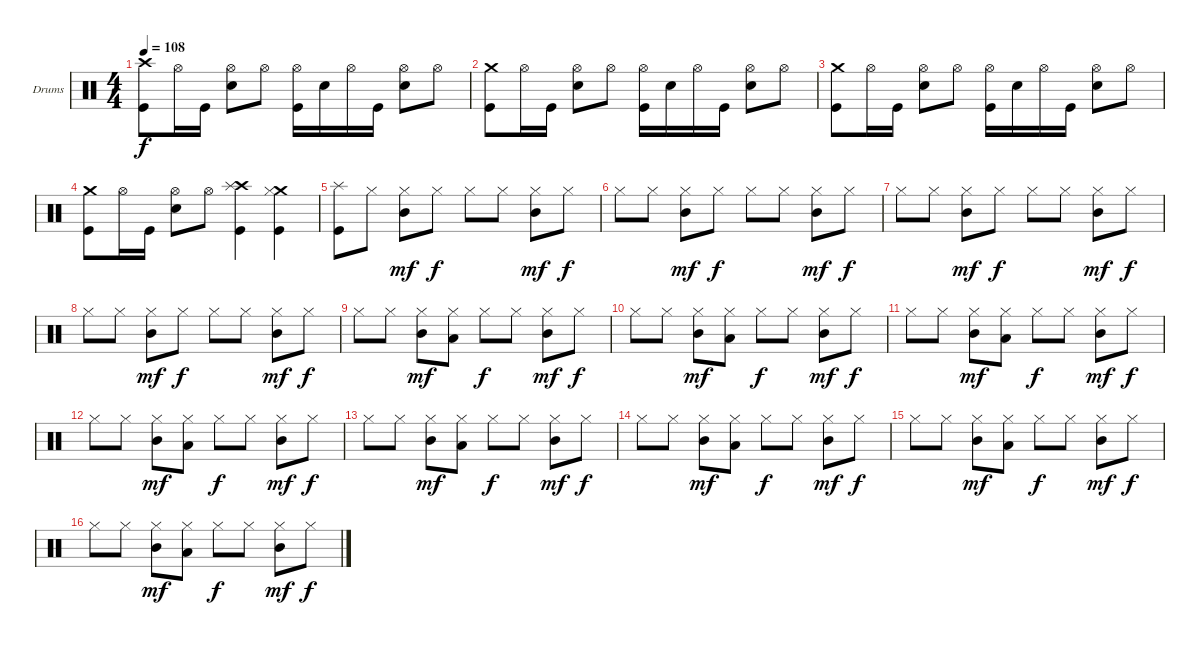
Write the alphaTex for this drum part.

\defaultSystemsLayout 4
\bracketExtendMode groupsimilarinstruments
\firstSystemTrackNameOrientation horizontal
\otherSystemsTrackNameOrientation horizontal
\track ("Drumkit" "Drums") {instrument percussion}
\staff {score}
\articulation defaults
\ts (4 4)
\tempo 108
\clef neutral
\ks c
("Kick (hit)" "Crash high (hit)").8{dy f} "Hi-Hat (open)".16 "Kick (hit)".16 ("Hi-Hat (open)" "Snare (hit) 2").8 "Hi-Hat (open)".8 ("Hi-Hat (open)" "Kick (hit)").16 "Snare (hit) 2".16 "Hi-Hat (open)".16 "Kick (hit)".16 ("Hi-Hat (open)" "Snare (hit) 2").8 "Hi-Hat (open)".8 |
("Kick (hit)" "Crash medium (hit)").8 "Hi-Hat (open)".16 "Kick (hit)".16 ("Hi-Hat (open)" "Snare (hit) 2").8 "Hi-Hat (open)".8 ("Hi-Hat (open)" "Kick (hit)").16 "Snare (hit) 2".16 "Hi-Hat (open)".16 "Kick (hit)".16 ("Hi-Hat (open)" "Snare (hit) 2").8 "Hi-Hat (open)".8 |
("Kick (hit)" "Crash medium (hit)").8 "Hi-Hat (open)".16 "Kick (hit)".16 ("Hi-Hat (open)" "Snare (hit) 2").8 "Hi-Hat (open)".8 ("Hi-Hat (open)" "Kick (hit)").16 "Snare (hit) 2".16 "Hi-Hat (open)".16 "Kick (hit)".16 ("Hi-Hat (open)" "Snare (hit) 2").8 "Hi-Hat (open)".8 |
("Kick (hit)" "Crash medium (hit)").8 "Hi-Hat (open)".16 "Kick (hit)".16 ("Hi-Hat (open)" "Snare (hit) 2").8 "Hi-Hat (open)".8 ("Kick (hit)" "Crash high (hit)" "Splash (hit)").4 ("Crash medium (hit)" "Hi-Hat (closed)" "Kick (hit)").4 |
("Splash (hit)" "Kick (hit)").8 "Hi-Hat (closed)".8 ("Hi-Hat (closed)" "Mid Tom (hit)").8{dy mf} "Hi-Hat (closed)".8{dy f} "Hi-Hat (closed)".8 "Hi-Hat (closed)".8 ("Hi-Hat (closed)" "Mid Tom (hit)").8{dy mf} "Hi-Hat (closed)".8{dy f} |
"Hi-Hat (closed)".8 "Hi-Hat (closed)".8 ("Hi-Hat (closed)" "Mid Tom (hit)").8{dy mf} "Hi-Hat (closed)".8{dy f} "Hi-Hat (closed)".8 "Hi-Hat (closed)".8 ("Hi-Hat (closed)" "Mid Tom (hit)").8{dy mf} "Hi-Hat (closed)".8{dy f} |
"Hi-Hat (closed)".8 "Hi-Hat (closed)".8 ("Hi-Hat (closed)" "Mid Tom (hit)").8{dy mf} "Hi-Hat (closed)".8{dy f} "Hi-Hat (closed)".8 "Hi-Hat (closed)".8 ("Hi-Hat (closed)" "Mid Tom (hit)").8{dy mf} "Hi-Hat (closed)".8{dy f} |
"Hi-Hat (closed)".8 "Hi-Hat (closed)".8 ("Hi-Hat (closed)" "Mid Tom (hit)").8{dy mf} "Hi-Hat (closed)".8{dy f} "Hi-Hat (closed)".8 "Hi-Hat (closed)".8 ("Hi-Hat (closed)" "Mid Tom (hit)").8{dy mf} "Hi-Hat (closed)".8{dy f} |
"Hi-Hat (closed)".8 "Hi-Hat (closed)".8 ("Hi-Hat (closed)" "Mid Tom (hit)").8{dy mf} ("Hi-Hat (closed)" "Low Tom (hit)").8 "Hi-Hat (closed)".8{dy f} "Hi-Hat (closed)".8 ("Hi-Hat (closed)" "Mid Tom (hit)").8{dy mf} "Hi-Hat (closed)".8{dy f} |
"Hi-Hat (closed)".8 "Hi-Hat (closed)".8 ("Hi-Hat (closed)" "Mid Tom (hit)").8{dy mf} ("Hi-Hat (closed)" "Low Tom (hit)").8 "Hi-Hat (closed)".8{dy f} "Hi-Hat (closed)".8 ("Hi-Hat (closed)" "Mid Tom (hit)").8{dy mf} "Hi-Hat (closed)".8{dy f} |
"Hi-Hat (closed)".8 "Hi-Hat (closed)".8 ("Hi-Hat (closed)" "Mid Tom (hit)").8{dy mf} ("Hi-Hat (closed)" "Low Tom (hit)").8 "Hi-Hat (closed)".8{dy f} "Hi-Hat (closed)".8 ("Hi-Hat (closed)" "Mid Tom (hit)").8{dy mf} "Hi-Hat (closed)".8{dy f} |
"Hi-Hat (closed)".8 "Hi-Hat (closed)".8 ("Hi-Hat (closed)" "Mid Tom (hit)").8{dy mf} ("Hi-Hat (closed)" "Low Tom (hit)").8 "Hi-Hat (closed)".8{dy f} "Hi-Hat (closed)".8 ("Hi-Hat (closed)" "Mid Tom (hit)").8{dy mf} "Hi-Hat (closed)".8{dy f} |
"Hi-Hat (closed)".8 "Hi-Hat (closed)".8 ("Hi-Hat (closed)" "Mid Tom (hit)").8{dy mf} ("Hi-Hat (closed)" "Low Tom (hit)").8 "Hi-Hat (closed)".8{dy f} "Hi-Hat (closed)".8 ("Hi-Hat (closed)" "Mid Tom (hit)").8{dy mf} "Hi-Hat (closed)".8{dy f} |
"Hi-Hat (closed)".8 "Hi-Hat (closed)".8 ("Hi-Hat (closed)" "Mid Tom (hit)").8{dy mf} ("Hi-Hat (closed)" "Low Tom (hit)").8 "Hi-Hat (closed)".8{dy f} "Hi-Hat (closed)".8 ("Hi-Hat (closed)" "Mid Tom (hit)").8{dy mf} "Hi-Hat (closed)".8{dy f} |
"Hi-Hat (closed)".8 "Hi-Hat (closed)".8 ("Hi-Hat (closed)" "Mid Tom (hit)").8{dy mf} ("Hi-Hat (closed)" "Low Tom (hit)").8 "Hi-Hat (closed)".8{dy f} "Hi-Hat (closed)".8 ("Hi-Hat (closed)" "Mid Tom (hit)").8{dy mf} "Hi-Hat (closed)".8{dy f} |
"Hi-Hat (closed)".8 "Hi-Hat (closed)".8 ("Hi-Hat (closed)" "Mid Tom (hit)").8{dy mf} ("Hi-Hat (closed)" "Low Tom (hit)").8 "Hi-Hat (closed)".8{dy f} "Hi-Hat (closed)".8 ("Hi-Hat (closed)" "Mid Tom (hit)").8{dy mf} "Hi-Hat (closed)".8{dy f}
